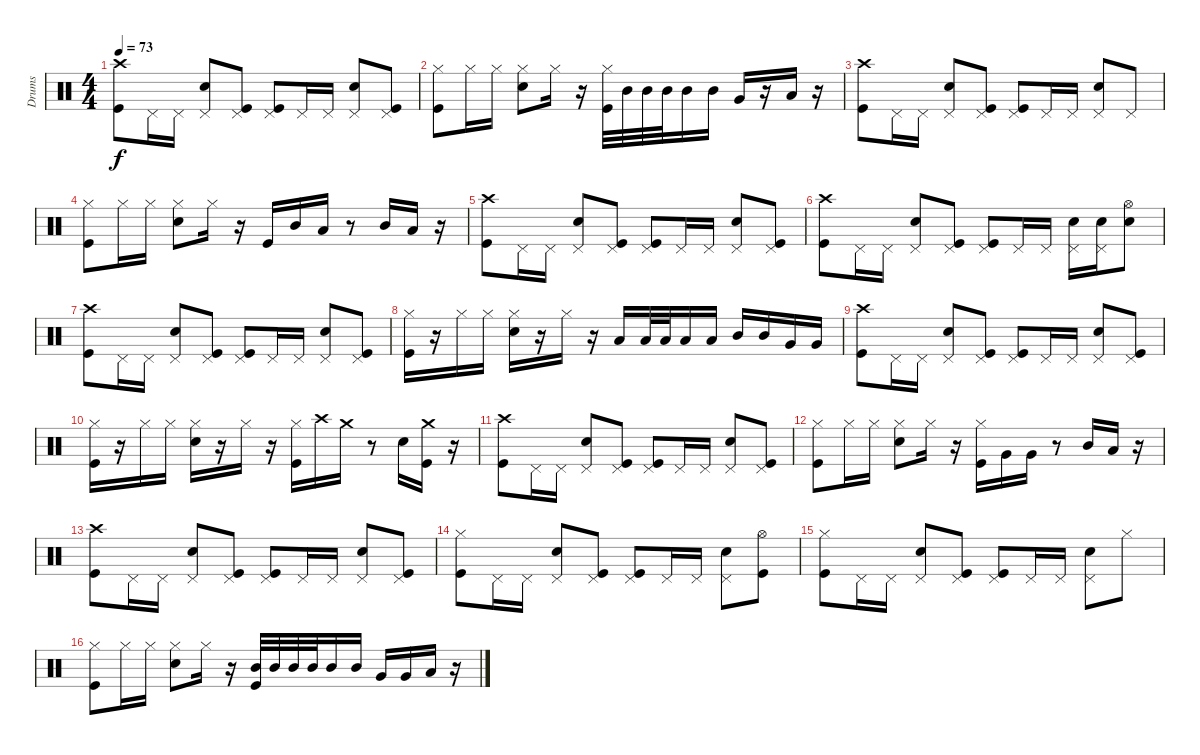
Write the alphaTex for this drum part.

\track ("Drums" "Drums") {instrument percussion}
\staff {score}
\articulation defaults
\ts (4 4)
\tempo 73
\clef neutral
\ks c
("Crash high (hit)" "Kick (hit)").8{dy f} "Pedal Hi-Hat (hit)".16 "Pedal Hi-Hat (hit)".16 ("Snare (hit) 2" "Pedal Hi-Hat (hit)").8 ("Kick (hit)" "Pedal Hi-Hat (hit)").8 ("Kick (hit)" "Pedal Hi-Hat (hit)").8 "Pedal Hi-Hat (hit)".16 "Pedal Hi-Hat (hit)".16 ("Snare (hit) 2" "Pedal Hi-Hat (hit)").8 ("Pedal Hi-Hat (hit)" "Kick (hit)").8 |
("Hi-Hat (closed)" "Kick (hit)").8 "Hi-Hat (closed)".16 "Hi-Hat (closed)".16 ("Hi-Hat (closed)" "Snare (hit) 2").8 "Hi-Hat (closed)".16 r.16 ("Hi-Hat (closed)" "Kick (hit)").32 "Mid Tom (hit)".32 "Mid Tom (hit)".32 "Mid Tom (hit)".32 "Mid Tom (hit)".16 "Mid Tom (hit)".16 "Very Low Tom (hit)".16 r.16 "Low Tom (hit)".16 r.16 |
("Crash high (hit)" "Kick (hit)").8 "Pedal Hi-Hat (hit)".16 "Pedal Hi-Hat (hit)".16 ("Snare (hit) 2" "Pedal Hi-Hat (hit)").8 ("Kick (hit)" "Pedal Hi-Hat (hit)").8 ("Kick (hit)" "Pedal Hi-Hat (hit)").8 "Pedal Hi-Hat (hit)".16 "Pedal Hi-Hat (hit)".16 ("Snare (hit) 2" "Pedal Hi-Hat (hit)").8 "Pedal Hi-Hat (hit)".8 |
("Hi-Hat (closed)" "Kick (hit)").8 "Hi-Hat (closed)".16 "Hi-Hat (closed)".16 ("Hi-Hat (closed)" "Snare (hit) 2").8 "Hi-Hat (closed)".16 r.16 "Kick (hit)".16 "Mid Tom (hit)".16 "Low Tom (hit)".16 r.8 "Mid Tom (hit)".16 "Low Tom (hit)".16 r.16 |
("Crash high (hit)" "Kick (hit)").8 "Pedal Hi-Hat (hit)".16 "Pedal Hi-Hat (hit)".16 ("Snare (hit) 2" "Pedal Hi-Hat (hit)").8 ("Kick (hit)" "Pedal Hi-Hat (hit)").8 ("Kick (hit)" "Pedal Hi-Hat (hit)").8 "Pedal Hi-Hat (hit)".16 "Pedal Hi-Hat (hit)".16 ("Snare (hit) 2" "Pedal Hi-Hat (hit)").8 ("Pedal Hi-Hat (hit)" "Kick (hit)").8 |
("Crash high (hit)" "Kick (hit)").8 "Pedal Hi-Hat (hit)".16 "Pedal Hi-Hat (hit)".16 ("Snare (hit) 2" "Pedal Hi-Hat (hit)").8 ("Kick (hit)" "Pedal Hi-Hat (hit)").8 ("Kick (hit)" "Pedal Hi-Hat (hit)").8 "Pedal Hi-Hat (hit)".16 "Pedal Hi-Hat (hit)".16 ("Snare (hit) 2" "Pedal Hi-Hat (hit)").16 ("Snare (hit) 2" "Pedal Hi-Hat (hit)").16 ("Hi-Hat (open)" "Snare (hit) 2").8 |
("Crash high (hit)" "Kick (hit)").8 "Pedal Hi-Hat (hit)".16 "Pedal Hi-Hat (hit)".16 ("Snare (hit) 2" "Pedal Hi-Hat (hit)").8 ("Kick (hit)" "Pedal Hi-Hat (hit)").8 ("Kick (hit)" "Pedal Hi-Hat (hit)").8 "Pedal Hi-Hat (hit)".16 "Pedal Hi-Hat (hit)".16 ("Snare (hit) 2" "Pedal Hi-Hat (hit)").8 ("Pedal Hi-Hat (hit)" "Kick (hit)").8 |
("Kick (hit)" "Hi-Hat (closed)").16 r.16 "Hi-Hat (closed)".16 "Hi-Hat (closed)".16 ("Snare (hit) 2" "Hi-Hat (closed)").16 r.16 "Hi-Hat (closed)".16 r.16 "Low Tom (hit)".16 "Low Tom (hit)".32 "Low Tom (hit)".32 "Low Tom (hit)".16 "Low Tom (hit)".16 "Mid Tom (hit)".16 "Mid Tom (hit)".16 "Very Low Tom (hit)".16 "Very Low Tom (hit)".16 |
("Crash high (hit)" "Kick (hit)").8 "Pedal Hi-Hat (hit)".16 "Pedal Hi-Hat (hit)".16 ("Snare (hit) 2" "Pedal Hi-Hat (hit)").8 ("Kick (hit)" "Pedal Hi-Hat (hit)").8 ("Kick (hit)" "Pedal Hi-Hat (hit)").8 "Pedal Hi-Hat (hit)".16 "Pedal Hi-Hat (hit)".16 ("Snare (hit) 2" "Pedal Hi-Hat (hit)").8 ("Pedal Hi-Hat (hit)" "Kick (hit)").8 |
("Kick (hit)" "Hi-Hat (closed)").16 r.16 "Hi-Hat (closed)".16 "Hi-Hat (closed)".16 ("Snare (hit) 2" "Hi-Hat (closed)").16 r.16 "Hi-Hat (closed)".16 r.16 ("Kick (hit)" "Hi-Hat (closed)").16 "Crash high (hit)".16 "Crash medium (hit)".16 r.8 "Snare (hit) 2".16 ("Kick (hit)" "Crash medium (hit)").16 r.16 |
("Crash high (hit)" "Kick (hit)").8 "Pedal Hi-Hat (hit)".16 "Pedal Hi-Hat (hit)".16 ("Snare (hit) 2" "Pedal Hi-Hat (hit)").8 ("Kick (hit)" "Pedal Hi-Hat (hit)").8 ("Kick (hit)" "Pedal Hi-Hat (hit)").8 "Pedal Hi-Hat (hit)".16 "Pedal Hi-Hat (hit)".16 ("Snare (hit) 2" "Pedal Hi-Hat (hit)").8 ("Pedal Hi-Hat (hit)" "Kick (hit)").8 |
("Hi-Hat (closed)" "Kick (hit)").8 "Hi-Hat (closed)".16 "Hi-Hat (closed)".16 ("Hi-Hat (closed)" "Snare (hit) 2").8 "Hi-Hat (closed)".16 r.16 ("Hi-Hat (closed)" "Kick (hit)").16 "Very Low Tom (hit)".16 "Very Low Tom (hit)".16 r.8 "Mid Tom (hit)".16 "Low Tom (hit)".16 r.16 |
("Crash high (hit)" "Kick (hit)").8 "Pedal Hi-Hat (hit)".16 "Pedal Hi-Hat (hit)".16 ("Snare (hit) 2" "Pedal Hi-Hat (hit)").8 ("Kick (hit)" "Pedal Hi-Hat (hit)").8 ("Kick (hit)" "Pedal Hi-Hat (hit)").8 "Pedal Hi-Hat (hit)".16 "Pedal Hi-Hat (hit)".16 ("Snare (hit) 2" "Pedal Hi-Hat (hit)").8 ("Pedal Hi-Hat (hit)" "Kick (hit)").8 |
("Hi-Hat (closed)" "Kick (hit)").8 "Pedal Hi-Hat (hit)".16 "Pedal Hi-Hat (hit)".16 ("Snare (hit) 2" "Pedal Hi-Hat (hit)").8 ("Kick (hit)" "Pedal Hi-Hat (hit)").8 ("Kick (hit)" "Pedal Hi-Hat (hit)").8 "Pedal Hi-Hat (hit)".16 "Pedal Hi-Hat (hit)".16 ("Snare (hit) 2" "Pedal Hi-Hat (hit)").8 ("Kick (hit)" "Hi-Hat (open)").8 |
("Hi-Hat (closed)" "Kick (hit)").8 "Pedal Hi-Hat (hit)".16 "Pedal Hi-Hat (hit)".16 ("Snare (hit) 2" "Pedal Hi-Hat (hit)").8 ("Kick (hit)" "Pedal Hi-Hat (hit)").8 ("Kick (hit)" "Pedal Hi-Hat (hit)").8 "Pedal Hi-Hat (hit)".16 "Pedal Hi-Hat (hit)".16 ("Snare (hit) 2" "Pedal Hi-Hat (hit)").8 "Hi-Hat (closed)".8 |
("Hi-Hat (closed)" "Kick (hit)").8 "Hi-Hat (closed)".16 "Hi-Hat (closed)".16 ("Hi-Hat (closed)" "Snare (hit) 2").8 "Hi-Hat (closed)".16 r.16 ("Mid Tom (hit)" "Kick (hit)").32 "Mid Tom (hit)".32 "Mid Tom (hit)".32 "Mid Tom (hit)".32 "Mid Tom (hit)".16 "Mid Tom (hit)".16 "Very Low Tom (hit)".16 "Very Low Tom (hit)".16 "Low Tom (hit)".16 r.16
